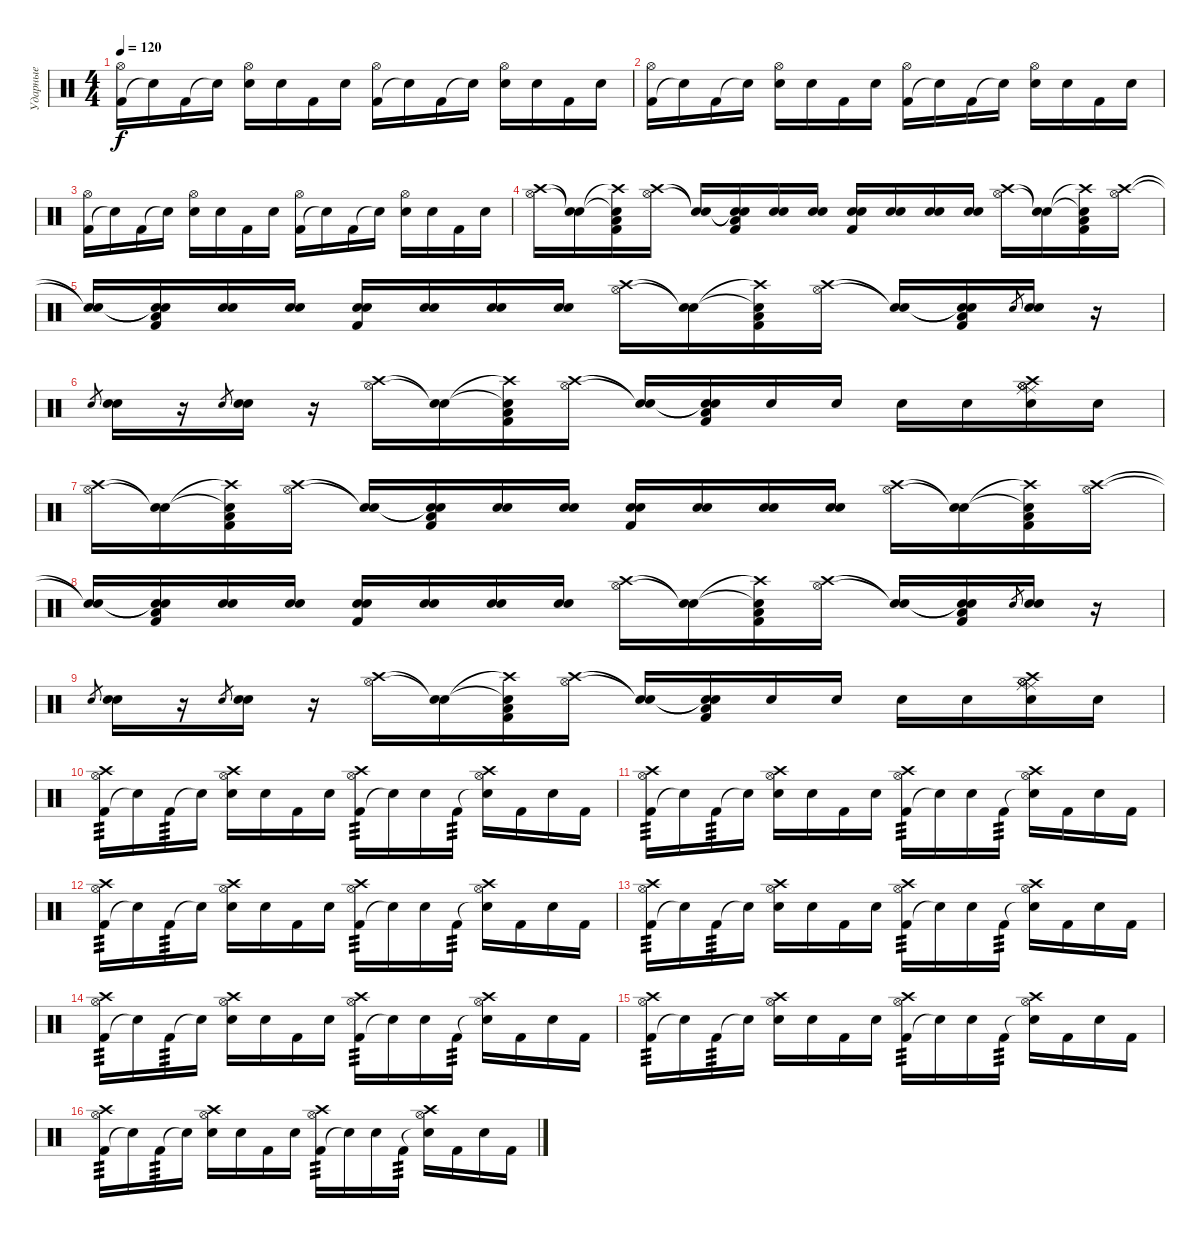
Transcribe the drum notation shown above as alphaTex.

\track ("Ударные" "Ударные") {instrument percussion}
\staff {score}
\articulation defaults
\ts (4 4)
\tempo 120
\clef neutral
\ks c
("Kick (hit) 2" "Hi-Hat (open)").16{dy f} "Snare (hit)"{t}.16 "Kick (hit) 2".16 "Snare (hit)"{t}.16 ("Electric Snare (hit)" "Hi-Hat (open)").16 "Electric Snare (hit)".16 "Kick (hit) 2".16 "Electric Snare (hit)".16 ("Kick (hit) 2" "Hi-Hat (open)").16 "Snare (hit)"{t}.16 "Kick (hit) 2".16 "Snare (hit)"{t}.16 ("Electric Snare (hit)" "Hi-Hat (open)").16 "Electric Snare (hit)".16 "Kick (hit) 2".16 "Electric Snare (hit)".16 |
("Kick (hit) 2" "Hi-Hat (open)").16 "Snare (hit)"{t}.16 "Kick (hit) 2".16 "Snare (hit)"{t}.16 ("Electric Snare (hit)" "Hi-Hat (open)").16 "Electric Snare (hit)".16 "Kick (hit) 2".16 "Electric Snare (hit)".16 ("Kick (hit) 2" "Hi-Hat (open)").16 "Snare (hit)"{t}.16 "Kick (hit) 2".16 "Snare (hit)"{t}.16 ("Electric Snare (hit)" "Hi-Hat (open)").16 "Electric Snare (hit)".16 "Kick (hit) 2".16 "Electric Snare (hit)".16 |
("Kick (hit) 2" "Hi-Hat (open)").16 "Snare (hit)"{t}.16 "Kick (hit) 2".16 "Snare (hit)"{t}.16 ("Electric Snare (hit)" "Hi-Hat (open)").16 "Electric Snare (hit)".16 "Kick (hit) 2".16 "Electric Snare (hit)".16 ("Kick (hit) 2" "Hi-Hat (open)").16 "Snare (hit)"{t}.16 "Kick (hit) 2".16 "Snare (hit)"{t}.16 ("Electric Snare (hit)" "Hi-Hat (open)").16 "Electric Snare (hit)".16 "Kick (hit) 2".16 "Electric Snare (hit)".16 |
("Crash high (hit)" "Hi-Hat (open)").16 ("Snare (hit)"{t} "Snare (hit)"{t}).16 ("Crash high (hit)"{t} "Snare (hit)"{t} "Low Floor Tom (hit)" "Kick (hit) 2").16 ("Crash high (hit)" "Hi-Hat (open)").16 ("Snare (hit)"{t} "Snare (hit)"{t}).16 ("Snare (hit)"{t} "Snare (hit)"{t} "Low Floor Tom (hit)" "Kick (hit) 2").16 ("Electric Snare (hit)" "Snare (hit) 2").16 ("Electric Snare (hit)" "Snare (hit) 2").16 ("Electric Snare (hit)" "Snare (hit) 2" "Kick (hit) 2").16 ("Electric Snare (hit)" "Snare (hit) 2").16 ("Electric Snare (hit)" "Snare (hit) 2").16 ("Electric Snare (hit)" "Snare (hit) 2").16 ("Crash high (hit)" "Hi-Hat (open)").16 ("Snare (hit)"{t} "Snare (hit)"{t}).16 ("Crash high (hit)"{t} "Snare (hit)"{t} "Low Floor Tom (hit)" "Kick (hit) 2").16 ("Crash high (hit)" "Hi-Hat (open)").16 |
("Snare (hit)"{t} "Snare (hit)"{t}).16 ("Snare (hit)"{t} "Snare (hit)"{t} "Low Floor Tom (hit)" "Kick (hit) 2").16 ("Electric Snare (hit)" "Snare (hit) 2").16 ("Electric Snare (hit)" "Snare (hit) 2").16 ("Electric Snare (hit)" "Snare (hit) 2" "Kick (hit) 2").16 ("Electric Snare (hit)" "Snare (hit) 2").16 ("Electric Snare (hit)" "Snare (hit) 2").16 ("Electric Snare (hit)" "Snare (hit) 2").16 ("Crash high (hit)" "Hi-Hat (open)").16 ("Snare (hit)"{t} "Snare (hit)"{t}).16 ("Crash high (hit)"{t} "Snare (hit)"{t} "Low Floor Tom (hit)" "Kick (hit) 2").16 ("Crash high (hit)" "Hi-Hat (open)").16 ("Snare (hit)"{t} "Snare (hit)"{t}).16 ("Snare (hit)"{t} "Snare (hit)"{t} "Low Floor Tom (hit)" "Kick (hit) 2").16 "Electric Snare (hit)".8{gr} ("Electric Snare (hit)" "Snare (hit) 2").16 r.16 |
"Electric Snare (hit)".8{gr} ("Electric Snare (hit)" "Snare (hit) 2").16 r.16 "Electric Snare (hit)".8{gr} ("Electric Snare (hit)" "Snare (hit) 2").16 r.16 ("Crash high (hit)" "Hi-Hat (open)").16 ("Snare (hit)"{t} "Snare (hit)"{t}).16 ("Crash high (hit)"{t} "Snare (hit)"{t} "Low Floor Tom (hit)" "Kick (hit) 2").16 ("Crash high (hit)" "Hi-Hat (open)").16 ("Snare (hit)"{t} "Snare (hit)"{t}).16 ("Snare (hit)"{t} "Snare (hit)"{t} "Low Floor Tom (hit)" "Kick (hit) 2").16 "Electric Snare (hit)".16 "Electric Snare (hit)".16 "Electric Snare (hit)".16 "Electric Snare (hit)".16 ("Electric Snare (hit)" "Ride (middle)" "Ride (middle)" "Hi-Hat (open)" "Hi-Hat (open)" "Crash high (hit)").16 "Electric Snare (hit)".16 |
("Crash high (hit)" "Hi-Hat (open)").16 ("Snare (hit)"{t} "Snare (hit)"{t}).16 ("Crash high (hit)"{t} "Snare (hit)"{t} "Low Floor Tom (hit)" "Kick (hit) 2").16 ("Crash high (hit)" "Hi-Hat (open)").16 ("Snare (hit)"{t} "Snare (hit)"{t}).16 ("Snare (hit)"{t} "Snare (hit)"{t} "Low Floor Tom (hit)" "Kick (hit) 2").16 ("Electric Snare (hit)" "Snare (hit) 2").16 ("Electric Snare (hit)" "Snare (hit) 2").16 ("Electric Snare (hit)" "Snare (hit) 2" "Kick (hit) 2").16 ("Electric Snare (hit)" "Snare (hit) 2").16 ("Electric Snare (hit)" "Snare (hit) 2").16 ("Electric Snare (hit)" "Snare (hit) 2").16 ("Crash high (hit)" "Hi-Hat (open)").16 ("Snare (hit)"{t} "Snare (hit)"{t}).16 ("Crash high (hit)"{t} "Snare (hit)"{t} "Low Floor Tom (hit)" "Kick (hit) 2").16 ("Crash high (hit)" "Hi-Hat (open)").16 |
("Snare (hit)"{t} "Snare (hit)"{t}).16 ("Snare (hit)"{t} "Snare (hit)"{t} "Low Floor Tom (hit)" "Kick (hit) 2").16 ("Electric Snare (hit)" "Snare (hit) 2").16 ("Electric Snare (hit)" "Snare (hit) 2").16 ("Electric Snare (hit)" "Snare (hit) 2" "Kick (hit) 2").16 ("Electric Snare (hit)" "Snare (hit) 2").16 ("Electric Snare (hit)" "Snare (hit) 2").16 ("Electric Snare (hit)" "Snare (hit) 2").16 ("Crash high (hit)" "Hi-Hat (open)").16 ("Snare (hit)"{t} "Snare (hit)"{t}).16 ("Crash high (hit)"{t} "Snare (hit)"{t} "Low Floor Tom (hit)" "Kick (hit) 2").16 ("Crash high (hit)" "Hi-Hat (open)").16 ("Snare (hit)"{t} "Snare (hit)"{t}).16 ("Snare (hit)"{t} "Snare (hit)"{t} "Low Floor Tom (hit)" "Kick (hit) 2").16 "Electric Snare (hit)".8{gr} ("Electric Snare (hit)" "Snare (hit) 2").16 r.16 |
"Electric Snare (hit)".8{gr} ("Electric Snare (hit)" "Snare (hit) 2").16 r.16 "Electric Snare (hit)".8{gr} ("Electric Snare (hit)" "Snare (hit) 2").16 r.16 ("Crash high (hit)" "Hi-Hat (open)").16 ("Snare (hit)"{t} "Snare (hit)"{t}).16 ("Crash high (hit)"{t} "Snare (hit)"{t} "Low Floor Tom (hit)" "Kick (hit) 2").16 ("Crash high (hit)" "Hi-Hat (open)").16 ("Snare (hit)"{t} "Snare (hit)"{t}).16 ("Snare (hit)"{t} "Snare (hit)"{t} "Low Floor Tom (hit)" "Kick (hit) 2").16 "Electric Snare (hit)".16 "Electric Snare (hit)".16 "Electric Snare (hit)".16 "Electric Snare (hit)".16 ("Electric Snare (hit)" "Ride (middle)" "Ride (middle)" "Hi-Hat (open)" "Hi-Hat (open)" "Crash high (hit)").16 "Electric Snare (hit)".16 |
("Kick (hit) 2" "Hi-Hat (open)" "Crash high (hit)").16{tp 3} "Snare (hit)"{t}.16 "Kick (hit) 2".16{tp 3} "Snare (hit)"{t}.16 ("Electric Snare (hit)" "Hi-Hat (open)" "Crash high (hit)").16 "Electric Snare (hit)".16 "Kick (hit) 2".16 "Electric Snare (hit)".16 ("Kick (hit) 2" "Hi-Hat (open)" "Crash high (hit)").16{tp 3} "Snare (hit)"{t}.16 "Electric Snare (hit)".16 "Kick (hit) 2".16{tp 3} ("Snare (hit)"{t} "Hi-Hat (open)" "Crash high (hit)").16 "Kick (hit) 2".16 "Electric Snare (hit)".16 "Kick (hit) 2".16 |
("Kick (hit) 2" "Hi-Hat (open)" "Crash high (hit)").16{tp 3} "Snare (hit)"{t}.16 "Kick (hit) 2".16{tp 3} "Snare (hit)"{t}.16 ("Electric Snare (hit)" "Hi-Hat (open)" "Crash high (hit)").16 "Electric Snare (hit)".16 "Kick (hit) 2".16 "Electric Snare (hit)".16 ("Kick (hit) 2" "Hi-Hat (open)" "Crash high (hit)").16{tp 3} "Snare (hit)"{t}.16 "Electric Snare (hit)".16 "Kick (hit) 2".16{tp 3} ("Snare (hit)"{t} "Hi-Hat (open)" "Crash high (hit)").16 "Kick (hit) 2".16 "Electric Snare (hit)".16 "Kick (hit) 2".16 |
("Kick (hit) 2" "Hi-Hat (open)" "Crash high (hit)").16{tp 3} "Snare (hit)"{t}.16 "Kick (hit) 2".16{tp 3} "Snare (hit)"{t}.16 ("Electric Snare (hit)" "Hi-Hat (open)" "Crash high (hit)").16 "Electric Snare (hit)".16 "Kick (hit) 2".16 "Electric Snare (hit)".16 ("Kick (hit) 2" "Hi-Hat (open)" "Crash high (hit)").16{tp 3} "Snare (hit)"{t}.16 "Electric Snare (hit)".16 "Kick (hit) 2".16{tp 3} ("Snare (hit)"{t} "Hi-Hat (open)" "Crash high (hit)").16 "Kick (hit) 2".16 "Electric Snare (hit)".16 "Kick (hit) 2".16 |
("Kick (hit) 2" "Hi-Hat (open)" "Crash high (hit)").16{tp 3} "Snare (hit)"{t}.16 "Kick (hit) 2".16{tp 3} "Snare (hit)"{t}.16 ("Electric Snare (hit)" "Hi-Hat (open)" "Crash high (hit)").16 "Electric Snare (hit)".16 "Kick (hit) 2".16 "Electric Snare (hit)".16 ("Kick (hit) 2" "Hi-Hat (open)" "Crash high (hit)").16{tp 3} "Snare (hit)"{t}.16 "Electric Snare (hit)".16 "Kick (hit) 2".16{tp 3} ("Snare (hit)"{t} "Hi-Hat (open)" "Crash high (hit)").16 "Kick (hit) 2".16 "Electric Snare (hit)".16 "Kick (hit) 2".16 |
("Kick (hit) 2" "Hi-Hat (open)" "Crash high (hit)").16{tp 3} "Snare (hit)"{t}.16 "Kick (hit) 2".16{tp 3} "Snare (hit)"{t}.16 ("Electric Snare (hit)" "Hi-Hat (open)" "Crash high (hit)").16 "Electric Snare (hit)".16 "Kick (hit) 2".16 "Electric Snare (hit)".16 ("Kick (hit) 2" "Hi-Hat (open)" "Crash high (hit)").16{tp 3} "Snare (hit)"{t}.16 "Electric Snare (hit)".16 "Kick (hit) 2".16{tp 3} ("Snare (hit)"{t} "Hi-Hat (open)" "Crash high (hit)").16 "Kick (hit) 2".16 "Electric Snare (hit)".16 "Kick (hit) 2".16 |
("Kick (hit) 2" "Hi-Hat (open)" "Crash high (hit)").16{tp 3} "Snare (hit)"{t}.16 "Kick (hit) 2".16{tp 3} "Snare (hit)"{t}.16 ("Electric Snare (hit)" "Hi-Hat (open)" "Crash high (hit)").16 "Electric Snare (hit)".16 "Kick (hit) 2".16 "Electric Snare (hit)".16 ("Kick (hit) 2" "Hi-Hat (open)" "Crash high (hit)").16{tp 3} "Snare (hit)"{t}.16 "Electric Snare (hit)".16 "Kick (hit) 2".16{tp 3} ("Snare (hit)"{t} "Hi-Hat (open)" "Crash high (hit)").16 "Kick (hit) 2".16 "Electric Snare (hit)".16 "Kick (hit) 2".16 |
("Kick (hit) 2" "Hi-Hat (open)" "Crash high (hit)").16{tp 3} "Snare (hit)"{t}.16 "Kick (hit) 2".16{tp 3} "Snare (hit)"{t}.16 ("Electric Snare (hit)" "Hi-Hat (open)" "Crash high (hit)").16 "Electric Snare (hit)".16 "Kick (hit) 2".16 "Electric Snare (hit)".16 ("Kick (hit) 2" "Hi-Hat (open)" "Crash high (hit)").16{tp 3} "Snare (hit)"{t}.16 "Electric Snare (hit)".16 "Kick (hit) 2".16{tp 3} ("Snare (hit)"{t} "Hi-Hat (open)" "Crash high (hit)").16 "Kick (hit) 2".16 "Electric Snare (hit)".16 "Kick (hit) 2".16
